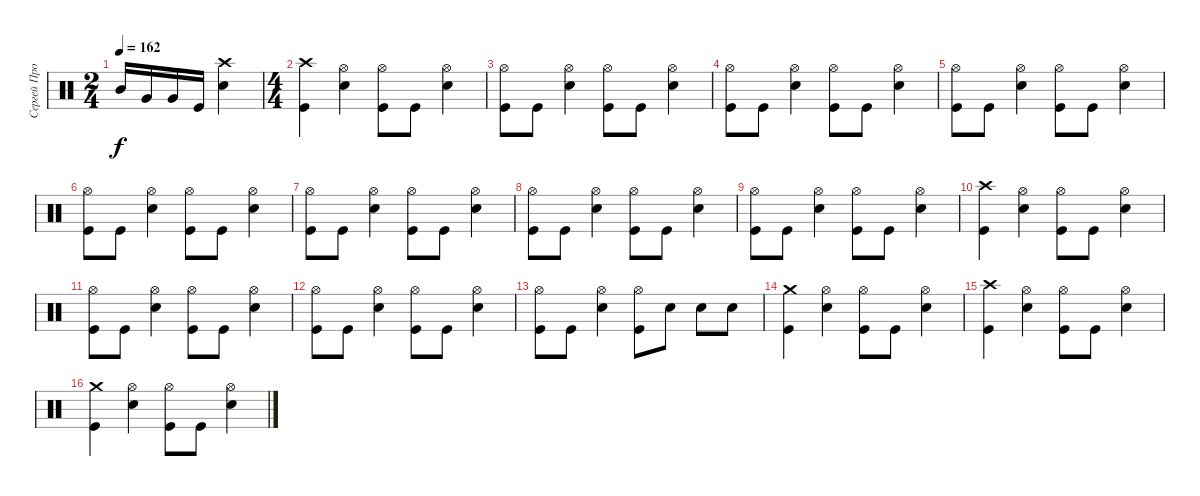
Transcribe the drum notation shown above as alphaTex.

\track ("Сергей Прокофьев" "Сергей Про") {instrument percussion}
\staff {score}
\articulation defaults
\ts (2 4)
\tempo 162
\clef neutral
\ks c "Mid Tom (hit)".16{dy f} "Very Low Tom (hit)".16 "Very Low Tom (hit)".16 "Kick (hit)".16
("Crash high (hit)" "Electric Snare (hit)").4 |
\ts (4 4)
("Crash high (hit)" "Kick (hit)").4 ("Hi-Hat (open)" "Electric Snare (hit)").4 ("Hi-Hat (open)" "Kick (hit)").8 "Kick (hit)".8 ("Hi-Hat (open)" "Electric Snare (hit)").4 |
("Hi-Hat (open)" "Kick (hit)").8 "Kick (hit)".8 ("Hi-Hat (open)" "Electric Snare (hit)").4 ("Hi-Hat (open)" "Kick (hit)").8 "Kick (hit)".8 ("Hi-Hat (open)" "Electric Snare (hit)").4 |
("Hi-Hat (open)" "Kick (hit)").8 "Kick (hit)".8 ("Hi-Hat (open)" "Electric Snare (hit)").4 ("Hi-Hat (open)" "Kick (hit)").8 "Kick (hit)".8 ("Hi-Hat (open)" "Electric Snare (hit)").4 |
("Hi-Hat (open)" "Kick (hit)").8 "Kick (hit)".8 ("Hi-Hat (open)" "Electric Snare (hit)").4 ("Hi-Hat (open)" "Kick (hit)").8 "Kick (hit)".8 ("Hi-Hat (open)" "Electric Snare (hit)").4 |
("Hi-Hat (open)" "Kick (hit)").8 "Kick (hit)".8 ("Hi-Hat (open)" "Electric Snare (hit)").4 ("Hi-Hat (open)" "Kick (hit)").8 "Kick (hit)".8 ("Hi-Hat (open)" "Electric Snare (hit)").4 |
("Hi-Hat (open)" "Kick (hit)").8 "Kick (hit)".8 ("Hi-Hat (open)" "Electric Snare (hit)").4 ("Hi-Hat (open)" "Kick (hit)").8 "Kick (hit)".8 ("Hi-Hat (open)" "Electric Snare (hit)").4 |
("Hi-Hat (open)" "Kick (hit)").8 "Kick (hit)".8 ("Hi-Hat (open)" "Electric Snare (hit)").4 ("Hi-Hat (open)" "Kick (hit)").8 "Kick (hit)".8 ("Hi-Hat (open)" "Electric Snare (hit)").4 |
("Hi-Hat (open)" "Kick (hit)").8 "Kick (hit)".8 ("Hi-Hat (open)" "Electric Snare (hit)").4 ("Hi-Hat (open)" "Kick (hit)").8 "Kick (hit)".8 ("Hi-Hat (open)" "Electric Snare (hit)").4 |
("Crash high (hit)" "Kick (hit)").4 ("Hi-Hat (open)" "Electric Snare (hit)").4 ("Hi-Hat (open)" "Kick (hit)").8 "Kick (hit)".8 ("Hi-Hat (open)" "Electric Snare (hit)").4 |
("Hi-Hat (open)" "Kick (hit)").8 "Kick (hit)".8 ("Hi-Hat (open)" "Electric Snare (hit)").4 ("Hi-Hat (open)" "Kick (hit)").8 "Kick (hit)".8 ("Hi-Hat (open)" "Electric Snare (hit)").4 |
("Hi-Hat (open)" "Kick (hit)").8 "Kick (hit)".8 ("Hi-Hat (open)" "Electric Snare (hit)").4 ("Hi-Hat (open)" "Kick (hit)").8 "Kick (hit)".8 ("Hi-Hat (open)" "Electric Snare (hit)").4 |
("Hi-Hat (open)" "Kick (hit)").8 "Kick (hit)".8 ("Hi-Hat (open)" "Electric Snare (hit)").4 ("Hi-Hat (open)" "Kick (hit)").8 "Electric Snare (hit)".8 "Electric Snare (hit)".8 "Electric Snare (hit)".8 |
("Crash medium (hit)" "Kick (hit)").4 ("Hi-Hat (open)" "Electric Snare (hit)").4 ("Hi-Hat (open)" "Kick (hit)").8 "Kick (hit)".8 ("Hi-Hat (open)" "Electric Snare (hit)").4 |
("Crash high (hit)" "Kick (hit)").4 ("Hi-Hat (open)" "Electric Snare (hit)").4 ("Hi-Hat (open)" "Kick (hit)").8 "Kick (hit)".8 ("Hi-Hat (open)" "Electric Snare (hit)").4 |
("Crash medium (hit)" "Kick (hit)").4 ("Hi-Hat (open)" "Electric Snare (hit)").4 ("Hi-Hat (open)" "Kick (hit)").8 "Kick (hit)".8 ("Hi-Hat (open)" "Electric Snare (hit)").4
